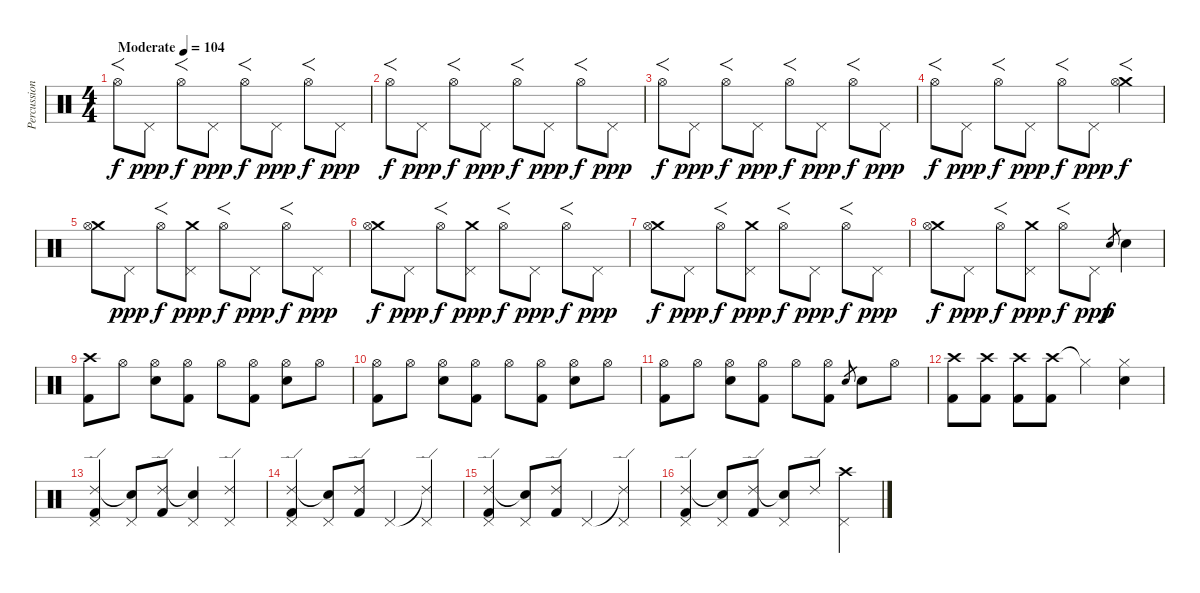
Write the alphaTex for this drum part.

\track ("Percussion" "Percussion") {instrument percussion}
\staff {score}
\articulation defaults
\ts (4 4)
\tempo (104 "Moderate")
\clef neutral
\ks c "Hi-Hat (open)".8{f dy f} "Pedal Hi-Hat (hit)".8{dy ppp} "Hi-Hat (open)".8{f dy f} "Pedal Hi-Hat (hit)".8{dy ppp} "Hi-Hat (open)".8{f dy f} "Pedal Hi-Hat (hit)".8{dy ppp} "Hi-Hat (open)".8{f dy f} "Pedal Hi-Hat (hit)".8{dy ppp}
|
"Hi-Hat (open)".8{f dy f} "Pedal Hi-Hat (hit)".8{dy ppp} "Hi-Hat (open)".8{f dy f} "Pedal Hi-Hat (hit)".8{dy ppp} "Hi-Hat (open)".8{f dy f} "Pedal Hi-Hat (hit)".8{dy ppp} "Hi-Hat (open)".8{f dy f} "Pedal Hi-Hat (hit)".8{dy ppp} |
"Hi-Hat (open)".8{f dy f} "Pedal Hi-Hat (hit)".8{dy ppp} "Hi-Hat (open)".8{f dy f} "Pedal Hi-Hat (hit)".8{dy ppp} "Hi-Hat (open)".8{f dy f} "Pedal Hi-Hat (hit)".8{dy ppp} "Hi-Hat (open)".8{f dy f} "Pedal Hi-Hat (hit)".8{dy ppp} |
"Hi-Hat (open)".8{f dy f} "Pedal Hi-Hat (hit)".8{dy ppp} "Hi-Hat (open)".8{f dy f} "Pedal Hi-Hat (hit)".8{dy ppp} "Hi-Hat (open)".8{f dy f} "Pedal Hi-Hat (hit)".8{dy ppp} ("Crash medium (hit)" "Hi-Hat (open)").4{f dy f} |
("Crash medium (hit)" "Hi-Hat (open)").8 "Pedal Hi-Hat (hit)".8{dy ppp} "Hi-Hat (open)".8{f dy f} ("Crash medium (hit)" "Pedal Hi-Hat (hit)").8{dy ppp} "Hi-Hat (open)".8{f dy f} "Pedal Hi-Hat (hit)".8{dy ppp} "Hi-Hat (open)".8{f dy f} "Pedal Hi-Hat (hit)".8{dy ppp} |
("Crash medium (hit)" "Hi-Hat (open)").8{dy f} "Pedal Hi-Hat (hit)".8{dy ppp} "Hi-Hat (open)".8{f dy f} ("Crash medium (hit)" "Pedal Hi-Hat (hit)").8{dy ppp} "Hi-Hat (open)".8{f dy f} "Pedal Hi-Hat (hit)".8{dy ppp} "Hi-Hat (open)".8{f dy f} "Pedal Hi-Hat (hit)".8{dy ppp} |
("Crash medium (hit)" "Hi-Hat (open)").8{dy f} "Pedal Hi-Hat (hit)".8{dy ppp} "Hi-Hat (open)".8{f dy f} ("Crash medium (hit)" "Pedal Hi-Hat (hit)").8{dy ppp} "Hi-Hat (open)".8{f dy f} "Pedal Hi-Hat (hit)".8{dy ppp} "Hi-Hat (open)".8{f dy f} "Pedal Hi-Hat (hit)".8{dy ppp} |
("Crash medium (hit)" "Hi-Hat (open)").8{dy f} "Pedal Hi-Hat (hit)".8{dy ppp} "Hi-Hat (open)".8{f dy f} ("Crash medium (hit)" "Pedal Hi-Hat (hit)").8{dy ppp} "Hi-Hat (open)".8{f dy f} "Pedal Hi-Hat (hit)".8{dy ppp} "Snare (hit) 2".8{gr dy f} "Snare (hit) 2".4 |
("Crash high (hit)" "Kick (hit) 2").8 "Hi-Hat (open)".8 ("Hi-Hat (open)" "Snare (hit) 2").8 ("Hi-Hat (open)" "Kick (hit) 2").8 "Hi-Hat (open)".8 ("Hi-Hat (open)" "Kick (hit) 2").8 ("Hi-Hat (open)" "Snare (hit) 2").8 "Hi-Hat (open)".8 |
("Hi-Hat (open)" "Kick (hit) 2").8 "Hi-Hat (open)".8 ("Hi-Hat (open)" "Snare (hit) 2").8 ("Hi-Hat (open)" "Kick (hit) 2").8 "Hi-Hat (open)".8 ("Hi-Hat (open)" "Kick (hit) 2").8 ("Hi-Hat (open)" "Snare (hit) 2").8 "Hi-Hat (open)".8 |
("Hi-Hat (open)" "Kick (hit) 2").8 "Hi-Hat (open)".8 ("Hi-Hat (open)" "Snare (hit) 2").8 ("Hi-Hat (open)" "Kick (hit) 2").8 "Hi-Hat (open)".8 ("Hi-Hat (open)" "Kick (hit) 2").8 "Snare (hit) 2".8{gr} "Snare (hit) 2".8 "Hi-Hat (open)".8 |
("Crash high (hit)" "Kick (hit) 2").8 ("Crash high (hit)" "Kick (hit) 2").8 ("Crash high (hit)" "Kick (hit) 2").8 ("Crash high (hit)" "Kick (hit) 2").8 "Hi-Hat (closed)"{t}.4 ("Hi-Hat (closed)" "Snare (hit) 2").4 |
("Ride (edge) 2" "Kick (hit) 2" "Pedal Hi-Hat (hit)").4 ("Snare (hit)"{t} "Pedal Hi-Hat (hit)").8 ("Ride (edge) 2" "Kick (hit) 2").8 ("Snare (hit)"{t} "Pedal Hi-Hat (hit)").4 ("Ride (edge) 2" "Pedal Hi-Hat (hit)").4 |
("Ride (edge) 2" "Kick (hit) 2" "Pedal Hi-Hat (hit)").4 ("Snare (hit)"{t} "Pedal Hi-Hat (hit)").8 ("Ride (edge) 2" "Kick (hit) 2").8 "Pedal Hi-Hat (hit)".4 ("Ride (edge) 2"{t} "Pedal Hi-Hat (hit)").4 |
("Ride (edge) 2" "Kick (hit) 2" "Pedal Hi-Hat (hit)").4 ("Snare (hit)"{t} "Pedal Hi-Hat (hit)").8 ("Ride (edge) 2" "Kick (hit) 2").8 "Pedal Hi-Hat (hit)".4 ("Ride (edge) 2"{t} "Pedal Hi-Hat (hit)").4 |
("Ride (edge) 2" "Kick (hit) 2" "Pedal Hi-Hat (hit)").4 ("Snare (hit)"{t} "Pedal Hi-Hat (hit)").8 ("Ride (edge) 2" "Kick (hit) 2").8 ("Snare (hit)"{t} "Pedal Hi-Hat (hit)").8 "Ride (edge) 2".8 ("Crash high (hit)" "Pedal Hi-Hat (hit)").4
